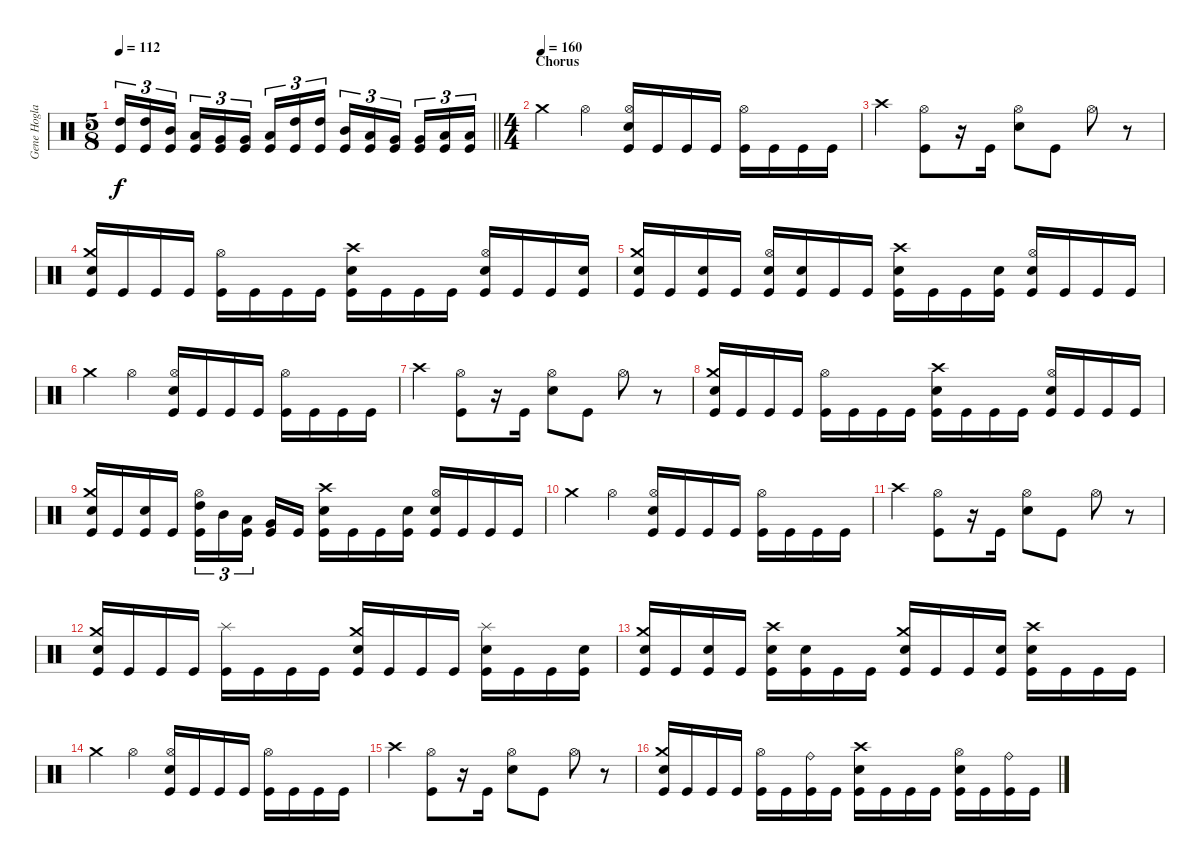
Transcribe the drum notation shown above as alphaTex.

\track ("Gene Hoglan" "Gene Hogla") {instrument percussion}
\staff {score}
\articulation defaults
\ts (5 8)
\tempo 112
\clef neutral
\barLineRight lightlight
\ks c
("High Tom (hit)" "Kick (hit)").16{tu (3 2) dy f} ("High Tom (hit)" "Kick (hit)").16{tu (3 2)} ("Mid Tom (hit)" "Kick (hit)").16{tu (3 2)} ("Low Tom (hit)" "Kick (hit)").16{tu (3 2)} ("Very Low Tom (hit)" "Kick (hit)").16{tu (3 2)} ("Very Low Tom (hit)" "Kick (hit)").16{tu (3 2)} ("Low Floor Tom (hit)" "Kick (hit)").16{tu (3 2)} ("High Tom (hit)" "Kick (hit)").16{tu (3 2)} ("High Tom (hit)" "Kick (hit)").16{tu (3 2)} ("Mid Tom (hit)" "Kick (hit)").16{tu (3 2)} ("Low Tom (hit)" "Kick (hit)").16{tu (3 2)} ("Very Low Tom (hit)" "Kick (hit)").16{tu (3 2)} ("Very Low Tom (hit)" "Kick (hit)").16{tu (3 2)} ("Low Floor Tom (hit)" "Kick (hit)").16{tu (3 2)} ("Low Floor Tom (hit)" "Kick (hit)").16{tu (3 2)} |
\ts (4 4)
\section ("" "Chorus")
\tempo (160)
"Crash medium (hit)".4 "Hi-Hat (open)".4 ("Hi-Hat (open)" "Electric Snare (hit)" "Kick (hit)").16 "Kick (hit)".16 "Kick (hit)".16 "Kick (hit)".16 ("Hi-Hat (open)" "Kick (hit)").16 "Kick (hit)".16 "Kick (hit)".16 "Kick (hit)".16 |
"Crash high (hit)".4 ("Hi-Hat (open)" "Kick (hit)").8 r.16 "Kick (hit)".16 ("Hi-Hat (open)" "Electric Snare (hit)").8 "Kick (hit)".8 "Hi-Hat (open)".8 r.8 |
("Crash medium (hit)" "Electric Snare (hit)" "Kick (hit)").16 "Kick (hit)".16 "Kick (hit)".16 "Kick (hit)".16 ("Hi-Hat (open)" "Kick (hit)").16 "Kick (hit)".16 "Kick (hit)".16 "Kick (hit)".16 ("Crash high (hit)" "Electric Snare (hit)" "Kick (hit)").16 "Kick (hit)".16 "Kick (hit)".16 "Kick (hit)".16 ("Hi-Hat (open)" "Electric Snare (hit)" "Kick (hit)").16 "Kick (hit)".16 "Kick (hit)".16 ("Electric Snare (hit)" "Kick (hit)").16 |
("Crash medium (hit)" "Electric Snare (hit)" "Kick (hit)").16 "Kick (hit)".16 ("Electric Snare (hit)" "Kick (hit)").16 "Kick (hit)".16 ("Hi-Hat (open)" "Electric Snare (hit)" "Kick (hit)").16 ("Electric Snare (hit)" "Kick (hit)").16 "Kick (hit)".16 "Kick (hit)".16 ("Crash high (hit)" "Electric Snare (hit)" "Kick (hit)").16 "Kick (hit)".16 "Kick (hit)".16 ("Electric Snare (hit)" "Kick (hit)").16 ("Hi-Hat (open)" "Electric Snare (hit)" "Kick (hit)").16 "Kick (hit)".16 "Kick (hit)".16 "Kick (hit)".16 |
"Crash medium (hit)".4 "Hi-Hat (open)".4 ("Hi-Hat (open)" "Electric Snare (hit)" "Kick (hit)").16 "Kick (hit)".16 "Kick (hit)".16 "Kick (hit)".16 ("Hi-Hat (open)" "Kick (hit)").16 "Kick (hit)".16 "Kick (hit)".16 "Kick (hit)".16 |
"Crash high (hit)".4 ("Hi-Hat (open)" "Kick (hit)").8 r.16 "Kick (hit)".16 ("Hi-Hat (open)" "Electric Snare (hit)").8 "Kick (hit)".8 "Hi-Hat (open)".8 r.8 |
("Crash medium (hit)" "Electric Snare (hit)" "Kick (hit)").16 "Kick (hit)".16 "Kick (hit)".16 "Kick (hit)".16 ("Hi-Hat (open)" "Kick (hit)").16 "Kick (hit)".16 "Kick (hit)".16 "Kick (hit)".16 ("Crash high (hit)" "Electric Snare (hit)" "Kick (hit)").16 "Kick (hit)".16 "Kick (hit)".16 "Kick (hit)".16 ("Hi-Hat (open)" "Electric Snare (hit)" "Kick (hit)").16 "Kick (hit)".16 "Kick (hit)".16 "Kick (hit)".16 |
("Crash medium (hit)" "Electric Snare (hit)" "Kick (hit)").16 "Kick (hit)".16 ("Electric Snare (hit)" "Kick (hit)").16 "Kick (hit)".16 ("Hi-Hat (open)" "High Tom (hit)" "Kick (hit)").16{tu (3 2)} "Mid Tom (hit)".16{tu (3 2)} ("Low Tom (hit)" "Kick (hit)").16{tu (3 2) beam splitsecondary} ("Very Low Tom (hit)" "Kick (hit)").16 "Kick (hit)".16 ("Crash high (hit)" "Electric Snare (hit)" "Kick (hit)").16 "Kick (hit)".16 "Kick (hit)".16 ("Electric Snare (hit)" "Kick (hit)").16 ("Hi-Hat (open)" "Electric Snare (hit)" "Kick (hit)").16 "Kick (hit)".16 "Kick (hit)".16 "Kick (hit)".16 |
"Crash medium (hit)".4 "Hi-Hat (open)".4 ("Hi-Hat (open)" "Electric Snare (hit)" "Kick (hit)").16 "Kick (hit)".16 "Kick (hit)".16 "Kick (hit)".16 ("Hi-Hat (open)" "Kick (hit)").16 "Kick (hit)".16 "Kick (hit)".16 "Kick (hit)".16 |
"Crash high (hit)".4 ("Hi-Hat (open)" "Kick (hit)").8 r.16 "Kick (hit)".16 ("Hi-Hat (open)" "Electric Snare (hit)").8 "Kick (hit)".8 "Hi-Hat (open)".8 r.8 |
("Crash medium (hit)" "Electric Snare (hit)" "Kick (hit)").16 "Kick (hit)".16 "Kick (hit)".16 "Kick (hit)".16 ("Splash (hit)" "Kick (hit)").16 "Kick (hit)".16 "Kick (hit)".16 "Kick (hit)".16 ("Crash medium (hit)" "Electric Snare (hit)" "Kick (hit)").16 "Kick (hit)".16 "Kick (hit)".16 "Kick (hit)".16 ("Splash (hit)" "Electric Snare (hit)" "Kick (hit)").16 "Kick (hit)".16 "Kick (hit)".16 ("Electric Snare (hit)" "Kick (hit)").16 |
("Crash medium (hit)" "Electric Snare (hit)" "Kick (hit)").16 "Kick (hit)".16 ("Electric Snare (hit)" "Kick (hit)").16 "Kick (hit)".16 ("Crash high (hit)" "Electric Snare (hit)" "Kick (hit)").16 ("Electric Snare (hit)" "Kick (hit)").16 "Kick (hit)".16 "Kick (hit)".16 ("Crash medium (hit)" "Electric Snare (hit)" "Kick (hit)").16 "Kick (hit)".16 "Kick (hit)".16 ("Electric Snare (hit)" "Kick (hit)").16 ("Crash high (hit)" "Electric Snare (hit)" "Kick (hit)").16 "Kick (hit)".16 "Kick (hit)".16 "Kick (hit)".16 |
"Crash medium (hit)".4 "Hi-Hat (open)".4 ("Hi-Hat (open)" "Electric Snare (hit)" "Kick (hit)").16 "Kick (hit)".16 "Kick (hit)".16 "Kick (hit)".16 ("Hi-Hat (open)" "Kick (hit)").16 "Kick (hit)".16 "Kick (hit)".16 "Kick (hit)".16 |
"Crash high (hit)".4 ("Hi-Hat (open)" "Kick (hit)").8 r.16 "Kick (hit)".16 ("Hi-Hat (open)" "Electric Snare (hit)").8 "Kick (hit)".8 "Hi-Hat (open)".8 r.8 |
("Crash medium (hit)" "Electric Snare (hit)" "Kick (hit)").16 "Kick (hit)".16 "Kick (hit)".16 "Kick (hit)".16 ("Hi-Hat (open)" "Kick (hit)").16 "Kick (hit)".16 ("Ride (bell)" "Kick (hit)").16 "Kick (hit)".16 ("Crash high (hit)" "Electric Snare (hit)" "Kick (hit)").16 "Kick (hit)".16 "Kick (hit)".16 "Kick (hit)".16 ("Hi-Hat (open)" "Electric Snare (hit)" "Kick (hit)").16 "Kick (hit)".16 ("Ride (bell)" "Kick (hit)").16 "Kick (hit)".16
